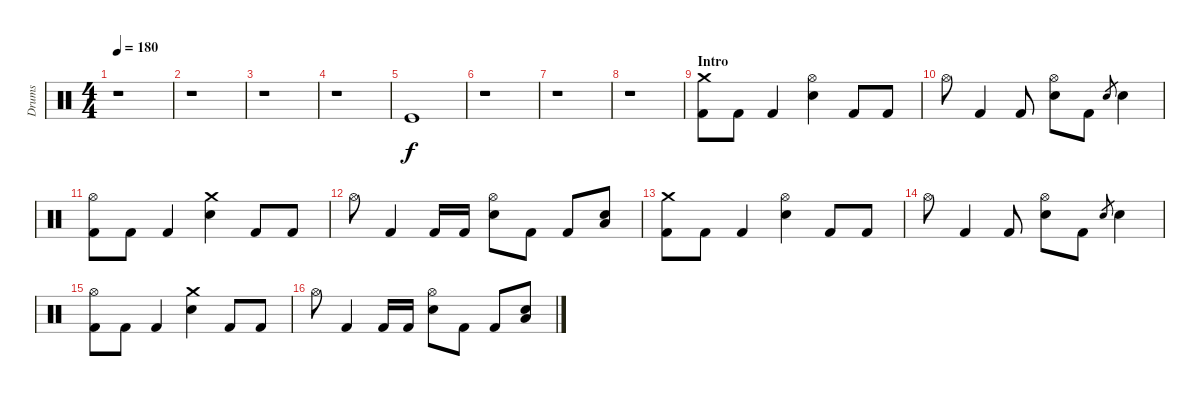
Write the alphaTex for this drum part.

\track ("Drums" "Drums") {instrument percussion}
\staff {score}
\articulation defaults
\ts (4 4)
\tempo 180
\clef neutral
\ks c
r.1{dy f} |
r.1 |
r.1 |
r.1 |
"Kick (hit)".1 |
r.1 |
r.1 |
r.1 |
\section ("" "Intro")
("Crash medium (hit)" "Kick (hit) 2").8 "Kick (hit) 2".8 "Kick (hit) 2".4 ("Hi-Hat (open)" "Electric Snare (hit)").4 "Kick (hit) 2".8 "Kick (hit) 2".8 |
"Hi-Hat (open)".8 "Kick (hit) 2".4 "Kick (hit) 2".8 ("Hi-Hat (open)" "Electric Snare (hit)").8 "Kick (hit) 2".8 "Electric Snare (hit)".8{gr} "Electric Snare (hit)".4 |
("Hi-Hat (open)" "Kick (hit) 2").8 "Kick (hit) 2".8 "Kick (hit) 2".4 ("Crash medium (hit)" "Electric Snare (hit)").4 "Kick (hit) 2".8 "Kick (hit) 2".8 |
"Hi-Hat (open)".8 "Kick (hit) 2".4 "Kick (hit) 2".16 "Kick (hit) 2".16 ("Hi-Hat (open)" "Electric Snare (hit)").8 "Kick (hit) 2".8 "Kick (hit) 2".8 ("Electric Snare (hit)" "Low Tom (hit)").8 |
("Crash medium (hit)" "Kick (hit) 2").8 "Kick (hit) 2".8 "Kick (hit) 2".4 ("Hi-Hat (open)" "Electric Snare (hit)").4 "Kick (hit) 2".8 "Kick (hit) 2".8 |
"Hi-Hat (open)".8 "Kick (hit) 2".4 "Kick (hit) 2".8 ("Hi-Hat (open)" "Electric Snare (hit)").8 "Kick (hit) 2".8 "Electric Snare (hit)".8{gr} "Electric Snare (hit)".4 |
("Hi-Hat (open)" "Kick (hit) 2").8 "Kick (hit) 2".8 "Kick (hit) 2".4 ("Crash medium (hit)" "Electric Snare (hit)").4 "Kick (hit) 2".8 "Kick (hit) 2".8 |
"Hi-Hat (open)".8 "Kick (hit) 2".4 "Kick (hit) 2".16 "Kick (hit) 2".16 ("Hi-Hat (open)" "Electric Snare (hit)").8 "Kick (hit) 2".8 "Kick (hit) 2".8 ("Electric Snare (hit)" "Low Tom (hit)").8
